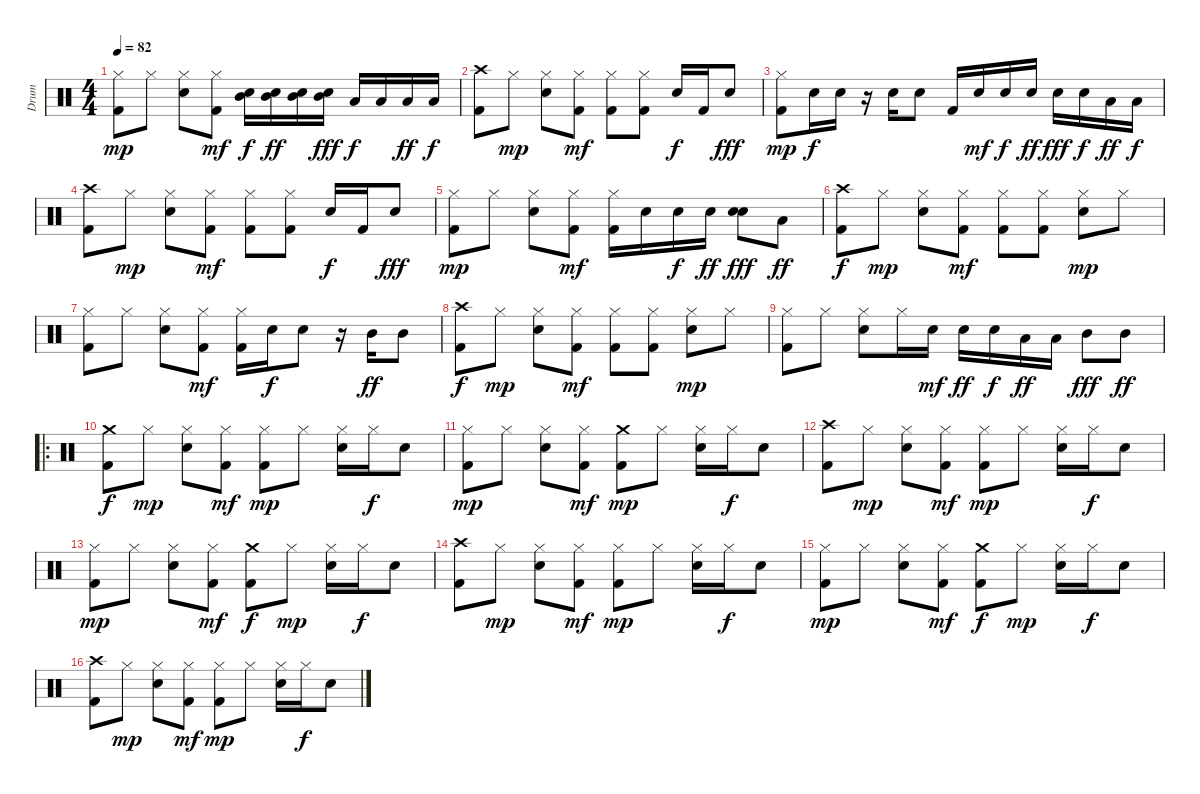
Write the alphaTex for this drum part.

\track ("Drum" "Drum") {instrument percussion}
\staff {score}
\articulation defaults
\ts (4 4)
\tempo 82
\clef neutral
\ks c
("Hi-Hat (closed)" "Kick (hit) 2").8{dy mp} "Hi-Hat (closed)".8 ("Hi-Hat (closed)" "Electric Snare (hit)").8 ("Hi-Hat (closed)" "Kick (hit) 2").8{dy mf} ("Mid Tom (hit)" "Snare (hit) 2").16{dy f} ("Mid Tom (hit)" "Snare (hit) 2").16{dy ff} ("Mid Tom (hit)" "Snare (hit) 2").16 ("Mid Tom (hit)" "Snare (hit) 2").16{dy fff} "Low Tom (hit)".16{dy f} "Low Tom (hit)".16 "Low Tom (hit)".16{dy ff} "Low Tom (hit)".16{dy f} |
("Crash high (hit)" "Kick (hit) 2").8 "Hi-Hat (closed)".8{dy mp} ("Hi-Hat (closed)" "Electric Snare (hit)").8 ("Hi-Hat (closed)" "Kick (hit) 2").8{dy mf} ("Hi-Hat (closed)" "Kick (hit) 2").8 ("Hi-Hat (closed)" "Kick (hit) 2").8 "Electric Snare (hit)".16{dy f} "Kick (hit) 2".16 "Electric Snare (hit)".8{dy fff} |
("Hi-Hat (closed)" "Kick (hit) 2").8{dy mp} "Electric Snare (hit)".16{dy f} "Electric Snare (hit)".16 r.16 "Snare (hit) 2".16 "Snare (hit) 2".8 "Kick (hit) 2".16 "Electric Snare (hit)".16{dy mf} "Electric Snare (hit)".16{dy f} "Electric Snare (hit)".16{dy ff} "Snare (hit) 2".16{dy fff} "Snare (hit) 2".16{dy f} "Low Tom (hit)".16{dy ff} "Low Tom (hit)".16{dy f} |
("Crash high (hit)" "Kick (hit) 2").8 "Hi-Hat (closed)".8{dy mp} ("Hi-Hat (closed)" "Electric Snare (hit)").8 ("Hi-Hat (closed)" "Kick (hit) 2").8{dy mf} ("Hi-Hat (closed)" "Kick (hit) 2").8 ("Hi-Hat (closed)" "Kick (hit) 2").8 "Electric Snare (hit)".16{dy f} "Kick (hit) 2".16 "Electric Snare (hit)".8{dy fff} |
("Hi-Hat (closed)" "Kick (hit) 2").8{dy mp} "Hi-Hat (closed)".8 ("Hi-Hat (closed)" "Electric Snare (hit)").8 ("Hi-Hat (closed)" "Kick (hit) 2").8{dy mf} ("Hi-Hat (closed)" "Kick (hit) 2").16 "Electric Snare (hit)".16 "Electric Snare (hit)".16{dy f} "Electric Snare (hit)".16{dy ff} ("Snare (hit) 2" "Electric Snare (hit)").8{dy fff} "Low Tom (hit)".8{dy ff} |
("Crash high (hit)" "Kick (hit) 2").8{dy f} "Hi-Hat (closed)".8{dy mp} ("Hi-Hat (closed)" "Electric Snare (hit)").8 ("Hi-Hat (closed)" "Kick (hit) 2").8{dy mf} ("Hi-Hat (closed)" "Kick (hit) 2").8 ("Hi-Hat (closed)" "Kick (hit) 2").8 ("Hi-Hat (closed)" "Electric Snare (hit)").8{dy mp} "Hi-Hat (closed)".8 |
("Hi-Hat (closed)" "Kick (hit) 2").8 "Hi-Hat (closed)".8 ("Hi-Hat (closed)" "Electric Snare (hit)").8 ("Hi-Hat (closed)" "Kick (hit) 2").8{dy mf} ("Hi-Hat (closed)" "Kick (hit) 2").16 "Electric Snare (hit)".16{dy f} "Electric Snare (hit)".8 r.16 "Mid Tom (hit)".16{dy ff} "Mid Tom (hit)".8 |
("Crash high (hit)" "Kick (hit) 2").8{dy f} "Hi-Hat (closed)".8{dy mp} ("Hi-Hat (closed)" "Electric Snare (hit)").8 ("Hi-Hat (closed)" "Kick (hit) 2").8{dy mf} ("Hi-Hat (closed)" "Kick (hit) 2").8 ("Hi-Hat (closed)" "Kick (hit) 2").8 ("Hi-Hat (closed)" "Electric Snare (hit)").8{dy mp} "Hi-Hat (closed)".8 |
("Hi-Hat (closed)" "Kick (hit) 2").8 "Hi-Hat (closed)".8 ("Hi-Hat (closed)" "Electric Snare (hit)").8 "Hi-Hat (closed)".16 "Electric Snare (hit)".16{dy mf} "Electric Snare (hit)".16{dy ff} "Electric Snare (hit)".16{dy f} "Low Tom (hit)".16{dy ff} "Low Tom (hit)".16 "Mid Tom (hit)".8{dy fff} "Mid Tom (hit)".8{dy ff} |
\ro
("Crash medium (hit)" "Kick (hit) 2").8{dy f} "Hi-Hat (closed)".8{dy mp} ("Hi-Hat (closed)" "Electric Snare (hit)").8 ("Hi-Hat (closed)" "Kick (hit) 2").8{dy mf} ("Hi-Hat (closed)" "Kick (hit) 2").8{dy mp} "Hi-Hat (closed)".8 ("Hi-Hat (closed)" "Electric Snare (hit)").16 "Hi-Hat (closed)".16{dy f} "Electric Snare (hit)".8 |
("Hi-Hat (closed)" "Kick (hit) 2").8{dy mp} "Hi-Hat (closed)".8 ("Hi-Hat (closed)" "Electric Snare (hit)").8 ("Hi-Hat (closed)" "Kick (hit) 2").8{dy mf} ("Crash medium (hit)" "Kick (hit) 2").8{dy mp} "Hi-Hat (closed)".8 ("Hi-Hat (closed)" "Electric Snare (hit)").16 "Hi-Hat (closed)".16{dy f} "Electric Snare (hit)".8 |
("Crash high (hit)" "Kick (hit) 2").8 "Hi-Hat (closed)".8{dy mp} ("Hi-Hat (closed)" "Electric Snare (hit)").8 ("Hi-Hat (closed)" "Kick (hit) 2").8{dy mf} ("Hi-Hat (closed)" "Kick (hit) 2").8{dy mp} "Hi-Hat (closed)".8 ("Hi-Hat (closed)" "Electric Snare (hit)").16 "Hi-Hat (closed)".16{dy f} "Electric Snare (hit)".8 |
("Hi-Hat (closed)" "Kick (hit) 2").8{dy mp} "Hi-Hat (closed)".8 ("Hi-Hat (closed)" "Electric Snare (hit)").8 ("Hi-Hat (closed)" "Kick (hit) 2").8{dy mf} ("Crash medium (hit)" "Kick (hit) 2").8{dy f} "Hi-Hat (closed)".8{dy mp} ("Hi-Hat (closed)" "Electric Snare (hit)").16 "Hi-Hat (closed)".16{dy f} "Electric Snare (hit)".8 |
("Crash high (hit)" "Kick (hit) 2").8 "Hi-Hat (closed)".8{dy mp} ("Hi-Hat (closed)" "Electric Snare (hit)").8 ("Hi-Hat (closed)" "Kick (hit) 2").8{dy mf} ("Hi-Hat (closed)" "Kick (hit) 2").8{dy mp} "Hi-Hat (closed)".8 ("Hi-Hat (closed)" "Electric Snare (hit)").16 "Hi-Hat (closed)".16{dy f} "Electric Snare (hit)".8 |
("Hi-Hat (closed)" "Kick (hit) 2").8{dy mp} "Hi-Hat (closed)".8 ("Hi-Hat (closed)" "Electric Snare (hit)").8 ("Hi-Hat (closed)" "Kick (hit) 2").8{dy mf} ("Crash medium (hit)" "Kick (hit) 2").8{dy f} "Hi-Hat (closed)".8{dy mp} ("Hi-Hat (closed)" "Electric Snare (hit)").16 "Hi-Hat (closed)".16{dy f} "Electric Snare (hit)".8 |
("Crash high (hit)" "Kick (hit) 2").8 "Hi-Hat (closed)".8{dy mp} ("Hi-Hat (closed)" "Electric Snare (hit)").8 ("Hi-Hat (closed)" "Kick (hit) 2").8{dy mf} ("Hi-Hat (closed)" "Kick (hit) 2").8{dy mp} "Hi-Hat (closed)".8 ("Hi-Hat (closed)" "Electric Snare (hit)").16 "Hi-Hat (closed)".16{dy f} "Electric Snare (hit)".8
